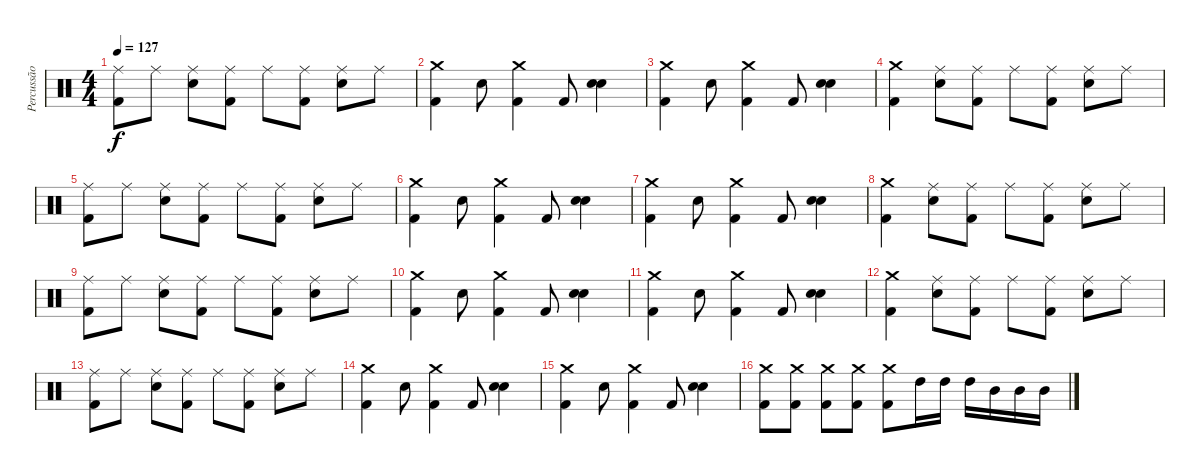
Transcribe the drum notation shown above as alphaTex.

\track ("Percussão" "Percussão") {instrument percussion}
\staff {score}
\articulation defaults
\ts (4 4)
\tempo 127
\clef neutral
\ks c
("Ride (middle)" "Kick (hit) 2").8{dy f} "Ride (middle)".8 ("Ride (middle)" "Electric Snare (hit)").8 ("Ride (middle)" "Kick (hit) 2").8 "Ride (middle)".8 ("Ride (middle)" "Kick (hit) 2").8 ("Ride (middle)" "Electric Snare (hit)").8 "Ride (middle)".8 |
("Crash medium (hit)" "Kick (hit) 2").4 "Electric Snare (hit)".8 ("Crash medium (hit)" "Kick (hit) 2").4 "Kick (hit) 2".8 ("Electric Snare (hit)" "Electric Snare (hit)").4 |
("Crash medium (hit)" "Kick (hit) 2").4 "Electric Snare (hit)".8 ("Crash medium (hit)" "Kick (hit) 2").4 "Kick (hit) 2".8 ("Electric Snare (hit)" "Electric Snare (hit)").4 |
("Crash medium (hit)" "Kick (hit) 2").4 ("Ride (middle)" "Electric Snare (hit)").8 ("Ride (middle)" "Kick (hit) 2").8 "Ride (middle)".8 ("Ride (middle)" "Kick (hit) 2").8 ("Ride (middle)" "Electric Snare (hit)").8 "Ride (middle)".8 |
("Ride (middle)" "Kick (hit) 2").8 "Ride (middle)".8 ("Ride (middle)" "Electric Snare (hit)").8 ("Ride (middle)" "Kick (hit) 2").8 "Ride (middle)".8 ("Ride (middle)" "Kick (hit) 2").8 ("Ride (middle)" "Electric Snare (hit)").8 "Ride (middle)".8 |
("Crash medium (hit)" "Kick (hit) 2").4 "Electric Snare (hit)".8 ("Crash medium (hit)" "Kick (hit) 2").4 "Kick (hit) 2".8 ("Electric Snare (hit)" "Electric Snare (hit)").4 |
("Crash medium (hit)" "Kick (hit) 2").4 "Electric Snare (hit)".8 ("Crash medium (hit)" "Kick (hit) 2").4 "Kick (hit) 2".8 ("Electric Snare (hit)" "Electric Snare (hit)").4 |
("Crash medium (hit)" "Kick (hit) 2").4 ("Ride (middle)" "Electric Snare (hit)").8 ("Ride (middle)" "Kick (hit) 2").8 "Ride (middle)".8 ("Ride (middle)" "Kick (hit) 2").8 ("Ride (middle)" "Electric Snare (hit)").8 "Ride (middle)".8 |
("Ride (middle)" "Kick (hit) 2").8 "Ride (middle)".8 ("Ride (middle)" "Electric Snare (hit)").8 ("Ride (middle)" "Kick (hit) 2").8 "Ride (middle)".8 ("Ride (middle)" "Kick (hit) 2").8 ("Ride (middle)" "Electric Snare (hit)").8 "Ride (middle)".8 |
("Crash medium (hit)" "Kick (hit) 2").4 "Electric Snare (hit)".8 ("Crash medium (hit)" "Kick (hit) 2").4 "Kick (hit) 2".8 ("Electric Snare (hit)" "Electric Snare (hit)").4 |
("Crash medium (hit)" "Kick (hit) 2").4 "Electric Snare (hit)".8 ("Crash medium (hit)" "Kick (hit) 2").4 "Kick (hit) 2".8 ("Electric Snare (hit)" "Electric Snare (hit)").4 |
("Crash medium (hit)" "Kick (hit) 2").4 ("Ride (middle)" "Electric Snare (hit)").8 ("Ride (middle)" "Kick (hit) 2").8 "Ride (middle)".8 ("Ride (middle)" "Kick (hit) 2").8 ("Ride (middle)" "Electric Snare (hit)").8 "Ride (middle)".8 |
("Ride (middle)" "Kick (hit) 2").8 "Ride (middle)".8 ("Ride (middle)" "Electric Snare (hit)").8 ("Ride (middle)" "Kick (hit) 2").8 "Ride (middle)".8 ("Ride (middle)" "Kick (hit) 2").8 ("Ride (middle)" "Electric Snare (hit)").8 "Ride (middle)".8 |
("Crash medium (hit)" "Kick (hit) 2").4 "Electric Snare (hit)".8 ("Crash medium (hit)" "Kick (hit) 2").4 "Kick (hit) 2".8 ("Electric Snare (hit)" "Electric Snare (hit)").4 |
("Crash medium (hit)" "Kick (hit) 2").4 "Electric Snare (hit)".8 ("Crash medium (hit)" "Kick (hit) 2").4 "Kick (hit) 2".8 ("Electric Snare (hit)" "Electric Snare (hit)").4 |
("Crash medium (hit)" "Kick (hit) 2").8 ("Crash medium (hit)" "Kick (hit) 2").8 ("Crash medium (hit)" "Kick (hit) 2").8 ("Crash medium (hit)" "Kick (hit) 2").8 ("Crash medium (hit)" "Kick (hit) 2").8 "High Tom (hit)".16 "High Tom (hit)".16 "High Tom (hit)".16 "Mid Tom (hit)".16 "Mid Tom (hit)".16 "Mid Tom (hit)".16
